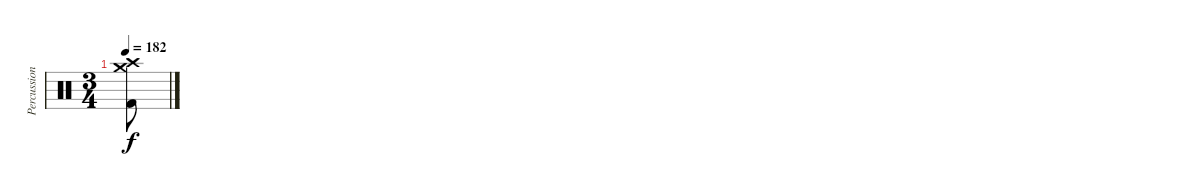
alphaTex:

\track ("Percussion" "Percussion") {instrument percussion}
\staff {score}
\articulation defaults
\ts (3 4)
\tempo 182
\clef neutral
\ks c
("Crash medium (hit)" "Crash high (hit)" "Kick (hit) 2").8{dy f}
